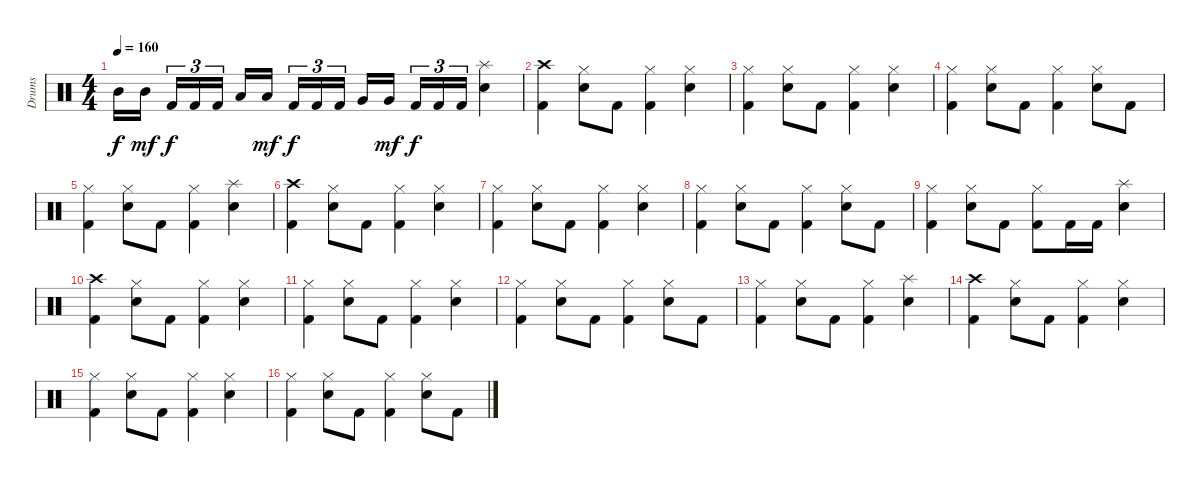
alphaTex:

\track ("Drums" "Drums") {instrument percussion}
\staff {score}
\articulation defaults
\ts (4 4)
\tempo 160
\clef neutral
\ks c "Mid Tom (hit)".16{dy f} "Mid Tom (hit)".16{dy mf beam splitsecondary} "Kick (hit) 2".16{tu (3 2) dy f} "Kick (hit) 2".16{tu (3 2)} "Kick (hit) 2".16{tu (3 2)} "Low Tom (hit)".16 "Low Tom (hit)".16{dy mf beam splitsecondary} "Kick (hit) 2".16{tu (3 2) dy f} "Kick (hit) 2".16{tu (3 2)} "Kick (hit) 2".16{tu (3 2)} "Very Low Tom (hit)".16 "Very Low Tom (hit)".16{dy mf beam splitsecondary} "Kick (hit) 2".16{tu (3 2) dy f} "Kick (hit) 2".16{tu (3 2)} "Kick (hit) 2".16{tu (3 2)}
("Splash (hit)" "Electric Snare (hit)").4 |
("Kick (hit) 2" "Crash high (hit)").4 ("Hi-Hat (closed)" "Electric Snare (hit)").8 "Kick (hit) 2".8 ("Kick (hit) 2" "Hi-Hat (closed)").4 ("Hi-Hat (closed)" "Electric Snare (hit)").4 |
("Kick (hit) 2" "Hi-Hat (closed)").4 ("Hi-Hat (closed)" "Electric Snare (hit)").8 "Kick (hit) 2".8 ("Kick (hit) 2" "Hi-Hat (closed)").4 ("Hi-Hat (closed)" "Electric Snare (hit)").4 |
("Kick (hit) 2" "Hi-Hat (closed)").4 ("Hi-Hat (closed)" "Electric Snare (hit)").8 "Kick (hit) 2".8 ("Kick (hit) 2" "Hi-Hat (closed)").4 ("Hi-Hat (closed)" "Electric Snare (hit)").8 "Kick (hit) 2".8 |
("Kick (hit) 2" "Hi-Hat (closed)").4 ("Hi-Hat (closed)" "Electric Snare (hit)").8 "Kick (hit) 2".8 ("Kick (hit) 2" "Hi-Hat (closed)").4 ("Splash (hit)" "Electric Snare (hit)").4 |
("Kick (hit) 2" "Crash high (hit)").4 ("Hi-Hat (closed)" "Electric Snare (hit)").8 "Kick (hit) 2".8 ("Kick (hit) 2" "Hi-Hat (closed)").4 ("Hi-Hat (closed)" "Electric Snare (hit)").4 |
("Kick (hit) 2" "Hi-Hat (closed)").4 ("Hi-Hat (closed)" "Electric Snare (hit)").8 "Kick (hit) 2".8 ("Kick (hit) 2" "Hi-Hat (closed)").4 ("Hi-Hat (closed)" "Electric Snare (hit)").4 |
("Kick (hit) 2" "Hi-Hat (closed)").4 ("Hi-Hat (closed)" "Electric Snare (hit)").8 "Kick (hit) 2".8 ("Kick (hit) 2" "Hi-Hat (closed)").4 ("Hi-Hat (closed)" "Electric Snare (hit)").8 "Kick (hit) 2".8 |
("Kick (hit) 2" "Hi-Hat (closed)").4 ("Hi-Hat (closed)" "Electric Snare (hit)").8 "Kick (hit) 2".8 ("Kick (hit) 2" "Hi-Hat (closed)").8 "Kick (hit) 2".16 "Kick (hit) 2".16 ("Splash (hit)" "Electric Snare (hit)").4 |
("Kick (hit) 2" "Crash high (hit)").4 ("Hi-Hat (closed)" "Electric Snare (hit)").8 "Kick (hit) 2".8 ("Kick (hit) 2" "Hi-Hat (closed)").4 ("Hi-Hat (closed)" "Electric Snare (hit)").4 |
("Kick (hit) 2" "Hi-Hat (closed)").4 ("Hi-Hat (closed)" "Electric Snare (hit)").8 "Kick (hit) 2".8 ("Kick (hit) 2" "Hi-Hat (closed)").4 ("Hi-Hat (closed)" "Electric Snare (hit)").4 |
("Kick (hit) 2" "Hi-Hat (closed)").4 ("Hi-Hat (closed)" "Electric Snare (hit)").8 "Kick (hit) 2".8 ("Kick (hit) 2" "Hi-Hat (closed)").4 ("Hi-Hat (closed)" "Electric Snare (hit)").8 "Kick (hit) 2".8 |
("Kick (hit) 2" "Hi-Hat (closed)").4 ("Hi-Hat (closed)" "Electric Snare (hit)").8 "Kick (hit) 2".8 ("Kick (hit) 2" "Hi-Hat (closed)").4 ("Splash (hit)" "Electric Snare (hit)").4 |
("Kick (hit) 2" "Crash high (hit)").4 ("Hi-Hat (closed)" "Electric Snare (hit)").8 "Kick (hit) 2".8 ("Kick (hit) 2" "Hi-Hat (closed)").4 ("Hi-Hat (closed)" "Electric Snare (hit)").4 |
("Kick (hit) 2" "Hi-Hat (closed)").4 ("Hi-Hat (closed)" "Electric Snare (hit)").8 "Kick (hit) 2".8 ("Kick (hit) 2" "Hi-Hat (closed)").4 ("Hi-Hat (closed)" "Electric Snare (hit)").4 |
("Kick (hit) 2" "Hi-Hat (closed)").4 ("Hi-Hat (closed)" "Electric Snare (hit)").8 "Kick (hit) 2".8 ("Kick (hit) 2" "Hi-Hat (closed)").4 ("Hi-Hat (closed)" "Electric Snare (hit)").8 "Kick (hit) 2".8
